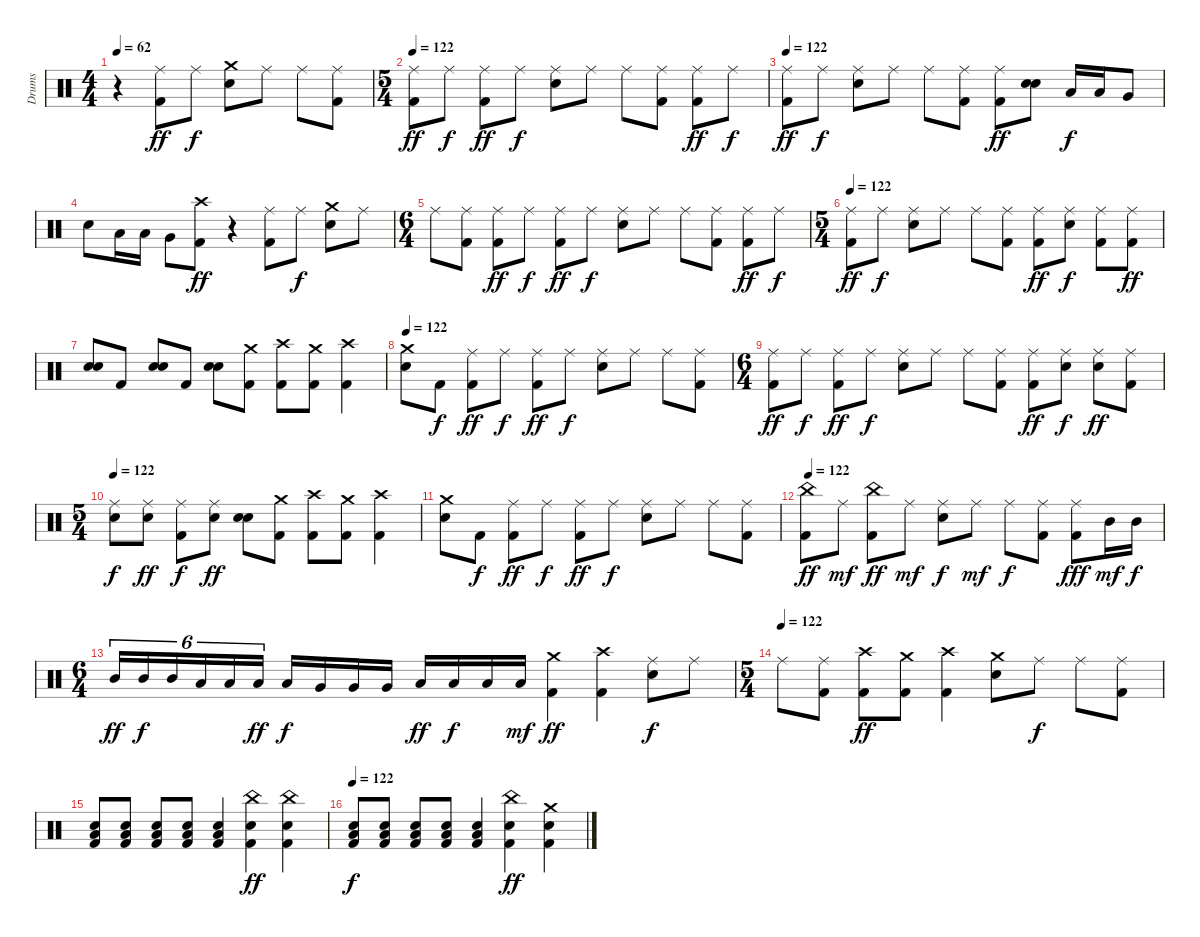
\track ("Drums" "Drums") {instrument percussion}
\staff {score}
\articulation defaults
\ts (4 4)
\tempo 62
\clef neutral
\ks c
r.4{dy ff} ("Ride (middle)" "Kick (hit) 2").8 "Ride (middle)".8{dy f} ("Electric Snare (hit)" "Crash medium (hit)").8 "Ride (middle)".8 "Ride (middle)".8 ("Kick (hit) 2" "Ride (middle)").8 |
\ts (5 4)
\tempo 122
("Ride (middle)" "Kick (hit) 2").8{dy ff} "Ride (middle)".8{dy f} ("Kick (hit) 2" "Ride (middle)").8{dy ff} "Ride (middle)".8{dy f} ("Electric Snare (hit)" "Ride (middle)").8 "Ride (middle)".8 "Ride (middle)".8 ("Ride (middle)" "Kick (hit) 2").8 ("Ride (middle)" "Kick (hit) 2").8{dy ff} "Ride (middle)".8{dy f} |
\tempo 122
("Kick (hit) 2" "Ride (middle)").8{dy ff} "Ride (middle)".8{dy f} ("Electric Snare (hit)" "Ride (middle)").8 "Ride (middle)".8 "Ride (middle)".8 ("Ride (middle)" "Kick (hit) 2").8 ("Ride (middle)" "Kick (hit) 2").8{dy ff} ("Electric Snare (hit)" "Electric Snare (hit)").8 "Low Tom (hit)".16{dy f} "Low Tom (hit)".16 "Very Low Tom (hit)".8 |
"Electric Snare (hit)".8 "Low Tom (hit)".16 "Low Tom (hit)".16 "Very Low Tom (hit)".8 ("Kick (hit) 2" "Crash high (hit)").8{dy ff} r.4 ("Ride (middle)" "Kick (hit) 2").8 "Ride (middle)".8{dy f} ("Electric Snare (hit)" "Crash medium (hit)").8 "Ride (middle)".8 |
\ts (6 4)
"Ride (middle)".8 ("Kick (hit) 2" "Ride (middle)").8 ("Ride (middle)" "Kick (hit) 2").8{dy ff} "Ride (middle)".8{dy f} ("Kick (hit) 2" "Ride (middle)").8{dy ff} "Ride (middle)".8{dy f} ("Electric Snare (hit)" "Ride (middle)").8 "Ride (middle)".8 "Ride (middle)".8 ("Ride (middle)" "Kick (hit) 2").8 ("Ride (middle)" "Kick (hit) 2").8{dy ff} "Ride (middle)".8{dy f} |
\ts (5 4)
\tempo 122
("Kick (hit) 2" "Ride (middle)").8{dy ff} "Ride (middle)".8{dy f} ("Electric Snare (hit)" "Ride (middle)").8 "Ride (middle)".8 "Ride (middle)".8 ("Ride (middle)" "Kick (hit) 2").8 ("Ride (middle)" "Kick (hit) 2").8{dy ff} ("Electric Snare (hit)" "Ride (middle)").8{dy f} ("Ride (middle)" "Kick (hit) 2").8 ("Ride (middle)" "Kick (hit) 2").8{dy ff} |
("Electric Snare (hit)" "Electric Snare (hit)").8 "Kick (hit) 2".8 ("Electric Snare (hit)" "Electric Snare (hit)").8 "Kick (hit) 2".8 ("Electric Snare (hit)" "Electric Snare (hit)").8 ("Crash medium (hit)" "Kick (hit) 2").8 ("Crash high (hit)" "Kick (hit) 2").8 ("Crash medium (hit)" "Kick (hit) 2").8 ("Crash high (hit)" "Kick (hit) 2").4 |
\tempo 122
("Electric Snare (hit)" "Crash medium (hit)").8 "Kick (hit) 2".8{dy f} ("Kick (hit) 2" "Ride (middle)").8{dy ff} "Ride (middle)".8{dy f} ("Kick (hit) 2" "Ride (middle)").8{dy ff} "Ride (middle)".8{dy f} ("Electric Snare (hit)" "Ride (middle)").8 "Ride (middle)".8 "Ride (middle)".8 ("Kick (hit) 2" "Ride (middle)").8 |
\ts (6 4)
("Kick (hit) 2" "Ride (middle)").8{dy ff} "Ride (middle)".8{dy f} ("Kick (hit) 2" "Ride (middle)").8{dy ff} "Ride (middle)".8{dy f} ("Electric Snare (hit)" "Ride (middle)").8 "Ride (middle)".8 "Ride (middle)".8 ("Kick (hit) 2" "Ride (middle)").8 ("Kick (hit) 2" "Ride (middle)").8{dy ff} ("Electric Snare (hit)" "Ride (middle)").8{dy f} ("Electric Snare (hit)" "Ride (middle)").8{dy ff} ("Kick (hit) 2" "Ride (middle)").8 |
\ts (5 4)
\tempo 122
("Electric Snare (hit)" "Ride (middle)").8{dy f} ("Electric Snare (hit)" "Ride (middle)").8{dy ff} ("Kick (hit) 2" "Ride (middle)").8{dy f} ("Electric Snare (hit)" "Ride (middle)").8{dy ff} ("Electric Snare (hit)" "Electric Snare (hit)").8 ("Crash medium (hit)" "Kick (hit) 2").8 ("Crash high (hit)" "Kick (hit) 2").8 ("Crash medium (hit)" "Kick (hit) 2").8 ("Crash high (hit)" "Kick (hit) 2").4 |
("Electric Snare (hit)" "Crash medium (hit)").8 "Kick (hit) 2".8{dy f} ("Kick (hit) 2" "Ride (middle)").8{dy ff} "Ride (middle)".8{dy f} ("Kick (hit) 2" "Ride (middle)").8{dy ff} "Ride (middle)".8{dy f} ("Electric Snare (hit)" "Ride (middle)").8 "Ride (middle)".8 "Ride (middle)".8 ("Kick (hit) 2" "Ride (middle)").8 |
\tempo 122
("China (hit)" "Kick (hit) 2").8{dy ff} "Ride (middle)".8{dy mf} ("China (hit)" "Kick (hit) 2").8{dy ff} "Ride (middle)".8{dy mf} ("Electric Snare (hit)" "Ride (middle)").8{dy f} "Ride (middle)".8{dy mf} "Ride (middle)".8{dy f} ("Kick (hit) 2" "Ride (middle)").8 ("Kick (hit) 2" "Ride (middle)").8{dy fff} "Mid Tom (hit)".16{dy mf} "Mid Tom (hit)".16{dy f} |
\ts (6 4)
"Mid Tom (hit)".16{tu (6 4) dy ff} "Mid Tom (hit)".16{tu (6 4) dy f} "Mid Tom (hit)".16{tu (6 4)} "Low Tom (hit)".16{tu (6 4)} "Low Tom (hit)".16{tu (6 4)} "Low Tom (hit)".16{tu (6 4) dy ff} "Low Tom (hit)".16{dy f} "Very Low Tom (hit)".16 "Very Low Tom (hit)".16 "Very Low Tom (hit)".16 "Low Floor Tom (hit)".16{dy ff} "Low Floor Tom (hit)".16{dy f} "Low Floor Tom (hit)".16 "Low Floor Tom (hit)".16{dy mf} ("Crash medium (hit)" "Kick (hit) 2").4{dy ff} ("Crash high (hit)" "Kick (hit) 2").4 ("Electric Snare (hit)" "Ride (middle)").8{dy f} "Ride (middle)".8 |
\ts (5 4)
\tempo (122)
"Ride (middle)".8 ("Kick (hit) 2" "Ride (middle)").8 ("Crash high (hit)" "Kick (hit) 2").8{dy ff} ("Crash medium (hit)" "Kick (hit) 2").8 ("Crash high (hit)" "Kick (hit) 2").4 ("Electric Snare (hit)" "Crash medium (hit)").8 "Ride (middle)".8{dy f} "Ride (middle)".8 ("Kick (hit) 2" "Ride (middle)").8 |
("Electric Snare (hit)" "Low Floor Tom (hit)" "Kick (hit) 2").8 ("Low Floor Tom (hit)" "Electric Snare (hit)" "Kick (hit) 2").8 ("Low Floor Tom (hit)" "Electric Snare (hit)" "Kick (hit) 2").8 ("Low Floor Tom (hit)" "Electric Snare (hit)" "Kick (hit) 2").8 ("Electric Snare (hit)" "Low Floor Tom (hit)" "Kick (hit) 2").4 ("China (hit)" "Electric Snare (hit)" "Kick (hit) 2").4{dy ff} ("China (hit)" "Electric Snare (hit)" "Kick (hit) 2").4 |
\tempo 122
("Electric Snare (hit)" "Low Floor Tom (hit)" "Kick (hit) 2").8{dy f} ("Low Floor Tom (hit)" "Electric Snare (hit)" "Kick (hit) 2").8 ("Low Floor Tom (hit)" "Electric Snare (hit)" "Kick (hit) 2").8 ("Low Floor Tom (hit)" "Electric Snare (hit)" "Kick (hit) 2").8 ("Electric Snare (hit)" "Low Floor Tom (hit)" "Kick (hit) 2").4 ("China (hit)" "Electric Snare (hit)" "Kick (hit) 2").4{dy ff} ("Crash medium (hit)" "Electric Snare (hit)" "Kick (hit) 2").4
